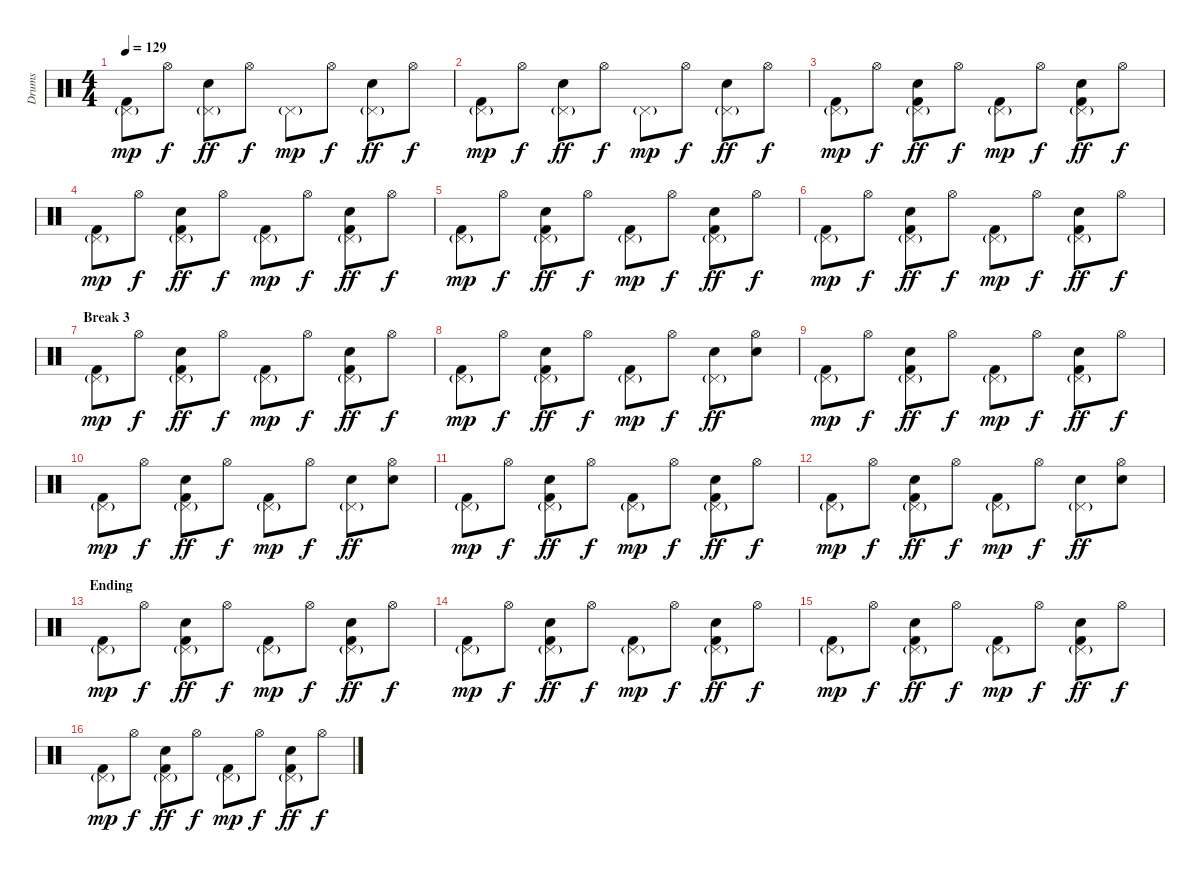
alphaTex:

\track ("Drums" "Drums") {instrument percussion}
\staff {score}
\articulation defaults
\ts (4 4)
\tempo 129
\clef neutral
\ks c
("Pedal Hi-Hat (hit)"{g} "Kick (hit) 2").8{dy mp} "Hi-Hat (open)".8{dy f} ("Pedal Hi-Hat (hit)"{g} "Electric Snare (hit)").8{dy ff} "Hi-Hat (open)".8{dy f} "Pedal Hi-Hat (hit)"{g}.8{dy mp} "Hi-Hat (open)".8{dy f} ("Pedal Hi-Hat (hit)"{g} "Electric Snare (hit)").8{dy ff} "Hi-Hat (open)".8{dy f} |
("Pedal Hi-Hat (hit)"{g} "Kick (hit) 2").8{dy mp} "Hi-Hat (open)".8{dy f} ("Pedal Hi-Hat (hit)"{g} "Electric Snare (hit)").8{dy ff} "Hi-Hat (open)".8{dy f} "Pedal Hi-Hat (hit)"{g}.8{dy mp} "Hi-Hat (open)".8{dy f} ("Pedal Hi-Hat (hit)"{g} "Electric Snare (hit)").8{dy ff} "Hi-Hat (open)".8{dy f} |
("Pedal Hi-Hat (hit)"{g} "Kick (hit) 2").8{dy mp} "Hi-Hat (open)".8{dy f} ("Pedal Hi-Hat (hit)"{g} "Electric Snare (hit)" "Kick (hit) 2").8{dy ff} "Hi-Hat (open)".8{dy f} ("Pedal Hi-Hat (hit)"{g} "Kick (hit) 2").8{dy mp} "Hi-Hat (open)".8{dy f} ("Pedal Hi-Hat (hit)"{g} "Electric Snare (hit)" "Kick (hit) 2").8{dy ff} "Hi-Hat (open)".8{dy f} |
("Pedal Hi-Hat (hit)"{g} "Kick (hit) 2").8{dy mp} "Hi-Hat (open)".8{dy f} ("Pedal Hi-Hat (hit)"{g} "Electric Snare (hit)" "Kick (hit) 2").8{dy ff} "Hi-Hat (open)".8{dy f} ("Pedal Hi-Hat (hit)"{g} "Kick (hit) 2").8{dy mp} "Hi-Hat (open)".8{dy f} ("Pedal Hi-Hat (hit)"{g} "Electric Snare (hit)" "Kick (hit) 2").8{dy ff} "Hi-Hat (open)".8{dy f} |
("Pedal Hi-Hat (hit)"{g} "Kick (hit) 2").8{dy mp} "Hi-Hat (open)".8{dy f} ("Pedal Hi-Hat (hit)"{g} "Electric Snare (hit)" "Kick (hit) 2").8{dy ff} "Hi-Hat (open)".8{dy f} ("Pedal Hi-Hat (hit)"{g} "Kick (hit) 2").8{dy mp} "Hi-Hat (open)".8{dy f} ("Pedal Hi-Hat (hit)"{g} "Electric Snare (hit)" "Kick (hit) 2").8{dy ff} "Hi-Hat (open)".8{dy f} |
("Pedal Hi-Hat (hit)"{g} "Kick (hit) 2").8{dy mp} "Hi-Hat (open)".8{dy f} ("Pedal Hi-Hat (hit)"{g} "Electric Snare (hit)" "Kick (hit) 2").8{dy ff} "Hi-Hat (open)".8{dy f} ("Pedal Hi-Hat (hit)"{g} "Kick (hit) 2").8{dy mp} "Hi-Hat (open)".8{dy f} ("Pedal Hi-Hat (hit)"{g} "Electric Snare (hit)" "Kick (hit) 2").8{dy ff} "Hi-Hat (open)".8{dy f} |
\section ("" "Break 3")
("Pedal Hi-Hat (hit)"{g} "Kick (hit) 2").8{dy mp} "Hi-Hat (open)".8{dy f} ("Pedal Hi-Hat (hit)"{g} "Electric Snare (hit)" "Kick (hit) 2").8{dy ff} "Hi-Hat (open)".8{dy f} ("Pedal Hi-Hat (hit)"{g} "Kick (hit) 2").8{dy mp} "Hi-Hat (open)".8{dy f} ("Pedal Hi-Hat (hit)"{g} "Electric Snare (hit)" "Kick (hit) 2").8{dy ff} "Hi-Hat (open)".8{dy f} |
("Pedal Hi-Hat (hit)"{g} "Kick (hit) 2").8{dy mp} "Hi-Hat (open)".8{dy f} ("Pedal Hi-Hat (hit)"{g} "Electric Snare (hit)" "Kick (hit) 2").8{dy ff} "Hi-Hat (open)".8{dy f} ("Pedal Hi-Hat (hit)"{g} "Kick (hit) 2").8{dy mp} "Hi-Hat (open)".8{dy f} ("Pedal Hi-Hat (hit)"{g} "Electric Snare (hit)").8{dy ff} ("Hi-Hat (open)" "Electric Snare (hit)").8 |
("Pedal Hi-Hat (hit)"{g} "Kick (hit) 2").8{dy mp} "Hi-Hat (open)".8{dy f} ("Pedal Hi-Hat (hit)"{g} "Electric Snare (hit)" "Kick (hit) 2").8{dy ff} "Hi-Hat (open)".8{dy f} ("Pedal Hi-Hat (hit)"{g} "Kick (hit) 2").8{dy mp} "Hi-Hat (open)".8{dy f} ("Pedal Hi-Hat (hit)"{g} "Electric Snare (hit)" "Kick (hit) 2").8{dy ff} "Hi-Hat (open)".8{dy f} |
("Pedal Hi-Hat (hit)"{g} "Kick (hit) 2").8{dy mp} "Hi-Hat (open)".8{dy f} ("Pedal Hi-Hat (hit)"{g} "Electric Snare (hit)" "Kick (hit) 2").8{dy ff} "Hi-Hat (open)".8{dy f} ("Pedal Hi-Hat (hit)"{g} "Kick (hit) 2").8{dy mp} "Hi-Hat (open)".8{dy f} ("Pedal Hi-Hat (hit)"{g} "Electric Snare (hit)").8{dy ff} ("Hi-Hat (open)" "Electric Snare (hit)").8 |
("Pedal Hi-Hat (hit)"{g} "Kick (hit) 2").8{dy mp} "Hi-Hat (open)".8{dy f} ("Pedal Hi-Hat (hit)"{g} "Electric Snare (hit)" "Kick (hit) 2").8{dy ff} "Hi-Hat (open)".8{dy f} ("Pedal Hi-Hat (hit)"{g} "Kick (hit) 2").8{dy mp} "Hi-Hat (open)".8{dy f} ("Pedal Hi-Hat (hit)"{g} "Electric Snare (hit)" "Kick (hit) 2").8{dy ff} "Hi-Hat (open)".8{dy f} |
("Pedal Hi-Hat (hit)"{g} "Kick (hit) 2").8{dy mp} "Hi-Hat (open)".8{dy f} ("Pedal Hi-Hat (hit)"{g} "Electric Snare (hit)" "Kick (hit) 2").8{dy ff} "Hi-Hat (open)".8{dy f} ("Pedal Hi-Hat (hit)"{g} "Kick (hit) 2").8{dy mp} "Hi-Hat (open)".8{dy f} ("Pedal Hi-Hat (hit)"{g} "Electric Snare (hit)").8{dy ff} ("Hi-Hat (open)" "Electric Snare (hit)").8 |
\section ("" "Ending")
("Pedal Hi-Hat (hit)"{g} "Kick (hit) 2").8{dy mp} "Hi-Hat (open)".8{dy f} ("Pedal Hi-Hat (hit)"{g} "Electric Snare (hit)" "Kick (hit) 2").8{dy ff} "Hi-Hat (open)".8{dy f} ("Pedal Hi-Hat (hit)"{g} "Kick (hit) 2").8{dy mp} "Hi-Hat (open)".8{dy f} ("Pedal Hi-Hat (hit)"{g} "Electric Snare (hit)" "Kick (hit) 2").8{dy ff} "Hi-Hat (open)".8{dy f} |
("Pedal Hi-Hat (hit)"{g} "Kick (hit) 2").8{dy mp} "Hi-Hat (open)".8{dy f} ("Pedal Hi-Hat (hit)"{g} "Electric Snare (hit)" "Kick (hit) 2").8{dy ff} "Hi-Hat (open)".8{dy f} ("Pedal Hi-Hat (hit)"{g} "Kick (hit) 2").8{dy mp} "Hi-Hat (open)".8{dy f} ("Pedal Hi-Hat (hit)"{g} "Electric Snare (hit)" "Kick (hit) 2").8{dy ff} "Hi-Hat (open)".8{dy f} |
("Pedal Hi-Hat (hit)"{g} "Kick (hit) 2").8{dy mp} "Hi-Hat (open)".8{dy f} ("Pedal Hi-Hat (hit)"{g} "Electric Snare (hit)" "Kick (hit) 2").8{dy ff} "Hi-Hat (open)".8{dy f} ("Pedal Hi-Hat (hit)"{g} "Kick (hit) 2").8{dy mp} "Hi-Hat (open)".8{dy f} ("Pedal Hi-Hat (hit)"{g} "Electric Snare (hit)" "Kick (hit) 2").8{dy ff} "Hi-Hat (open)".8{dy f} |
("Pedal Hi-Hat (hit)"{g} "Kick (hit) 2").8{dy mp} "Hi-Hat (open)".8{dy f} ("Pedal Hi-Hat (hit)"{g} "Electric Snare (hit)" "Kick (hit) 2").8{dy ff} "Hi-Hat (open)".8{dy f} ("Pedal Hi-Hat (hit)"{g} "Kick (hit) 2").8{dy mp} "Hi-Hat (open)".8{dy f} ("Pedal Hi-Hat (hit)"{g} "Electric Snare (hit)" "Kick (hit) 2").8{dy ff} "Hi-Hat (open)".8{dy f}
